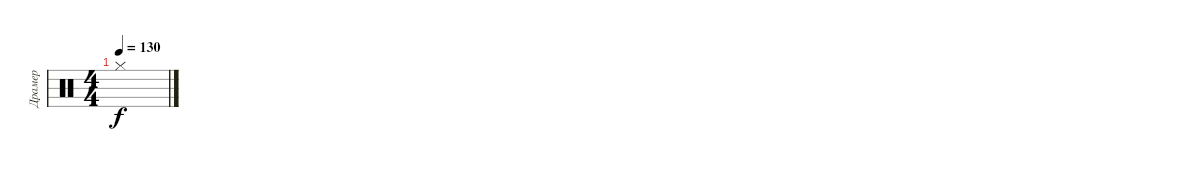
\track ("Драмер" "Драмер") {instrument percussion}
\staff {score}
\articulation defaults
\ts (4 4)
\tempo 130
\clef neutral
\ks c "Hi-Hat (closed)".1{dy f}
